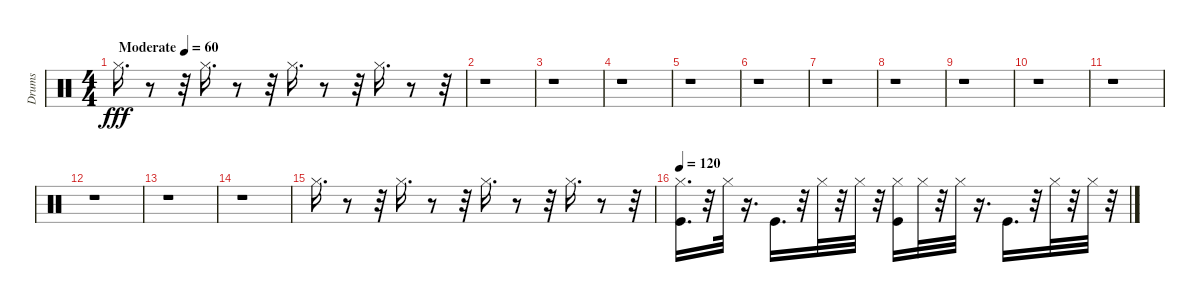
\track ("Drums" "Drums") {instrument percussion}
\staff {score}
\articulation defaults
\ts (4 4)
\tempo (60 "Moderate")
\clef neutral
\ks c "Hi-Hat (closed)".16{d dy fff}
r.8 r.32 "Hi-Hat (closed)".16{d} r.8 r.32 "Hi-Hat (closed)".16{d} r.8 r.32 "Hi-Hat (closed)".16{d} r.8 r.32 |
r.1 |
r.1 |
r.1 |
r.1 |
r.1 |
r.1 |
r.1 |
r.1 |
r.1 |
r.1 |
r.1 |
r.1 |
r.1 |
"Hi-Hat (closed)".16{d} r.8 r.32 "Hi-Hat (closed)".16{d} r.8 r.32 "Hi-Hat (closed)".16{d} r.8 r.32 "Hi-Hat (closed)".16{d} r.8 r.32 |
\tempo 120
("Hi-Hat (closed)" "Kick (hit)").16{d} r.32 "Hi-Hat (closed)".32 r.16{d} "Kick (hit)".16{d} r.32 "Hi-Hat (closed)".32 r.32 "Hi-Hat (closed)".32 r.32 ("Hi-Hat (closed)" "Kick (hit)").16 "Hi-Hat (closed)".32 r.32 "Hi-Hat (closed)".32 r.16{d} "Kick (hit)".16{d} r.32 "Hi-Hat (closed)".32 r.32 "Hi-Hat (closed)".32 r.32
